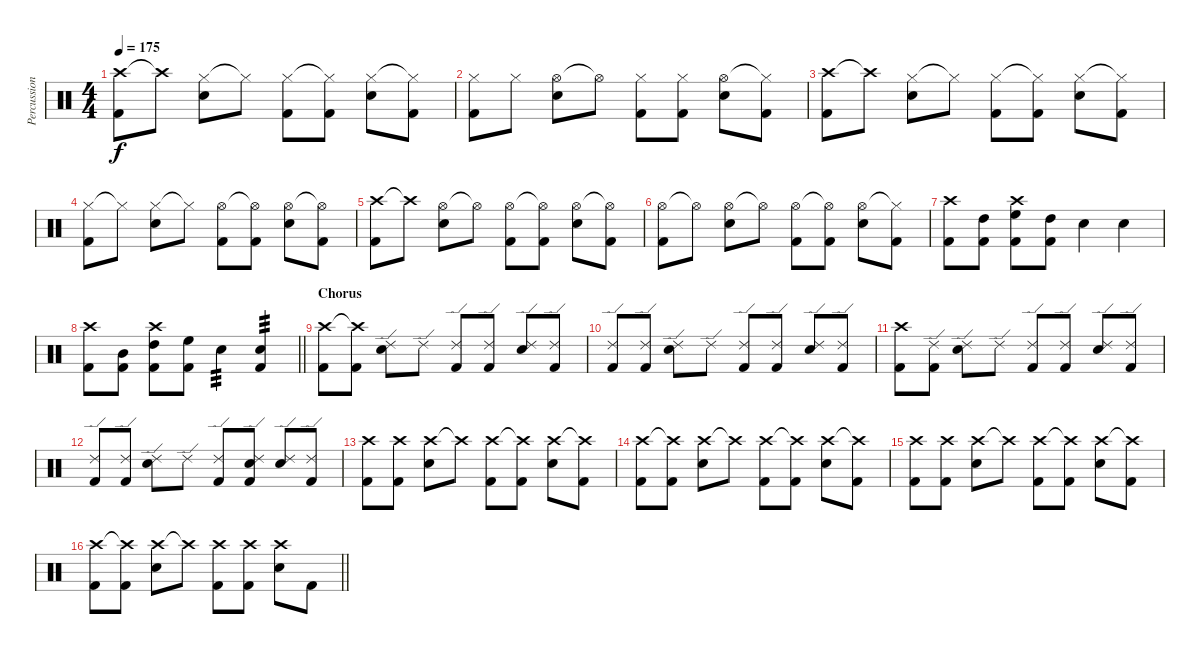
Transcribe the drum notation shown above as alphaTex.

\track ("Percussion" "Percussion") {instrument percussion}
\staff {score}
\articulation defaults
\ts (4 4)
\tempo 175
\clef neutral
\ks c
("Crash high (hit)" "Kick (hit) 2").8{dy f} "Crash high (hit)"{t}.8 ("Hi-Hat (closed)" "Snare (hit) 2").8 "Hi-Hat (closed)"{t}.8 ("Hi-Hat (closed)" "Kick (hit) 2").8 ("Hi-Hat (closed)"{t} "Kick (hit) 2").8 ("Hi-Hat (closed)" "Snare (hit) 2").8 ("Hi-Hat (closed)"{t} "Kick (hit) 2").8 |
("Hi-Hat (closed)" "Kick (hit) 2").8 "Hi-Hat (closed)".8 ("Hi-Hat (open)" "Snare (hit) 2").8 "Hi-Hat (open)"{t}.8 ("Hi-Hat (closed)" "Kick (hit) 2").8 ("Hi-Hat (closed)" "Kick (hit) 2").8 ("Hi-Hat (open)" "Snare (hit) 2").8 ("Hi-Hat (closed)"{t} "Kick (hit) 2").8 |
("Crash high (hit)" "Kick (hit) 2").8 "Crash high (hit)"{t}.8 ("Hi-Hat (closed)" "Snare (hit) 2").8 "Hi-Hat (closed)"{t}.8 ("Hi-Hat (closed)" "Kick (hit) 2").8 ("Hi-Hat (closed)"{t} "Kick (hit) 2").8 ("Hi-Hat (closed)" "Snare (hit) 2").8 ("Hi-Hat (closed)"{t} "Kick (hit) 2").8 |
("Hi-Hat (closed)" "Kick (hit) 2").8 "Hi-Hat (closed)"{t}.8 ("Hi-Hat (closed)" "Snare (hit) 2").8 "Hi-Hat (closed)"{t}.8 ("Hi-Hat (open)" "Kick (hit) 2").8 ("Hi-Hat (open)"{t} "Kick (hit) 2").8 ("Hi-Hat (open)" "Snare (hit) 2").8 ("Hi-Hat (open)"{t} "Kick (hit) 2").8 |
("Crash high (hit)" "Kick (hit) 2").8 "Crash high (hit)"{t}.8 ("Hi-Hat (open)" "Snare (hit) 2").8 "Hi-Hat (open)"{t}.8 ("Hi-Hat (open)" "Kick (hit) 2").8 ("Hi-Hat (open)"{t} "Kick (hit) 2").8 ("Hi-Hat (open)" "Snare (hit) 2").8 ("Hi-Hat (open)"{t} "Kick (hit) 2").8 |
("Hi-Hat (open)" "Kick (hit) 2").8 "Hi-Hat (open)"{t}.8 ("Hi-Hat (open)" "Snare (hit) 2").8 "Hi-Hat (open)"{t}.8 ("Hi-Hat (open)" "Kick (hit) 2").8 ("Hi-Hat (open)"{t} "Kick (hit) 2").8 ("Hi-Hat (open)" "Snare (hit) 2").8 ("Hi-Hat (closed)"{t} "Kick (hit) 2").8 |
("Crash high (hit)" "Kick (hit) 2").8 ("High Tom (hit)" "Kick (hit) 2").8 ("Crash high (hit)" "High Floor Tom (hit)" "Kick (hit) 2").8 ("High Tom (hit)" "Kick (hit) 2").8 "Snare (hit) 2".4 "Snare (hit) 2".4 |
\barLineRight lightlight
("Crash high (hit)" "Kick (hit) 2").8 ("Mid Tom (hit)" "Kick (hit) 2").8 ("Crash high (hit)" "High Tom (hit)" "Kick (hit) 2").8 ("High Floor Tom (hit)" "Kick (hit) 2").8 "Snare (hit) 2".4{tp 3} ("Snare (hit) 2" "Kick (hit) 2").4{tp 3} |
\section ("" "Chorus")
("Crash high (hit)" "Kick (hit) 2").8 ("Crash high (hit)"{t} "Kick (hit) 2").8 ("Ride (edge) 2" "Snare (hit) 2").8 "Ride (edge) 2".8 ("Ride (edge) 2" "Kick (hit) 2").8 ("Ride (edge) 2" "Kick (hit) 2").8 ("Ride (edge) 2" "Snare (hit) 2").8 ("Ride (edge) 2" "Kick (hit) 2").8 |
("Ride (edge) 2" "Kick (hit) 2").8 ("Ride (edge) 2" "Kick (hit) 2").8 ("Ride (edge) 2" "Snare (hit) 2").8 "Ride (edge) 2".8 ("Ride (edge) 2" "Kick (hit) 2").8 ("Ride (edge) 2" "Kick (hit) 2").8 ("Ride (edge) 2" "Snare (hit) 2").8 ("Ride (edge) 2" "Kick (hit) 2").8 |
("Crash high (hit)" "Kick (hit) 2").8 ("Ride (edge) 2" "Kick (hit) 2").8 ("Ride (edge) 2" "Snare (hit) 2").8 "Ride (edge) 2".8 ("Ride (edge) 2" "Kick (hit) 2").8 ("Ride (edge) 2" "Kick (hit) 2").8 ("Ride (edge) 2" "Snare (hit) 2").8 ("Ride (edge) 2" "Kick (hit) 2").8 |
("Ride (edge) 2" "Kick (hit) 2").8 ("Ride (edge) 2" "Kick (hit) 2").8 ("Ride (edge) 2" "Snare (hit) 2").8 "Ride (edge) 2".8 ("Ride (edge) 2" "Kick (hit) 2").8 ("Ride (edge) 2" "Snare (hit) 2" "Kick (hit) 2").8 ("Ride (edge) 2" "Snare (hit) 2").8 ("Ride (edge) 2" "Kick (hit) 2").8 |
("Crash high (hit)" "Kick (hit) 2").8 ("Crash high (hit)" "Kick (hit) 2").8 ("Crash high (hit)" "Snare (hit) 2").8 "Crash high (hit)"{t}.8 ("Crash high (hit)" "Kick (hit) 2").8 ("Crash high (hit)"{t} "Kick (hit) 2").8 ("Crash high (hit)" "Snare (hit) 2").8 ("Crash high (hit)"{t} "Kick (hit) 2").8 |
("Crash high (hit)" "Kick (hit) 2").8 ("Crash high (hit)"{t} "Kick (hit) 2").8 ("Crash high (hit)" "Snare (hit) 2").8 "Crash high (hit)"{t}.8 ("Crash high (hit)" "Kick (hit) 2").8 ("Crash high (hit)"{t} "Kick (hit) 2").8 ("Crash high (hit)" "Snare (hit) 2").8 ("Crash high (hit)"{t} "Kick (hit) 2").8 |
("Crash high (hit)" "Kick (hit) 2").8 ("Crash high (hit)" "Kick (hit) 2").8 ("Crash high (hit)" "Snare (hit) 2").8 "Crash high (hit)"{t}.8 ("Crash high (hit)" "Kick (hit) 2").8 ("Crash high (hit)"{t} "Kick (hit) 2").8 ("Crash high (hit)" "Snare (hit) 2").8 ("Crash high (hit)"{t} "Kick (hit) 2").8 |
\barLineRight lightlight
("Crash high (hit)" "Kick (hit) 2").8 ("Crash high (hit)"{t} "Kick (hit) 2").8 ("Crash high (hit)" "Snare (hit) 2").8 "Crash high (hit)"{t}.8 ("Crash high (hit)" "Kick (hit) 2").8 ("Crash high (hit)" "Kick (hit) 2").8 ("Crash high (hit)" "Snare (hit) 2").8 "Kick (hit) 2".8
